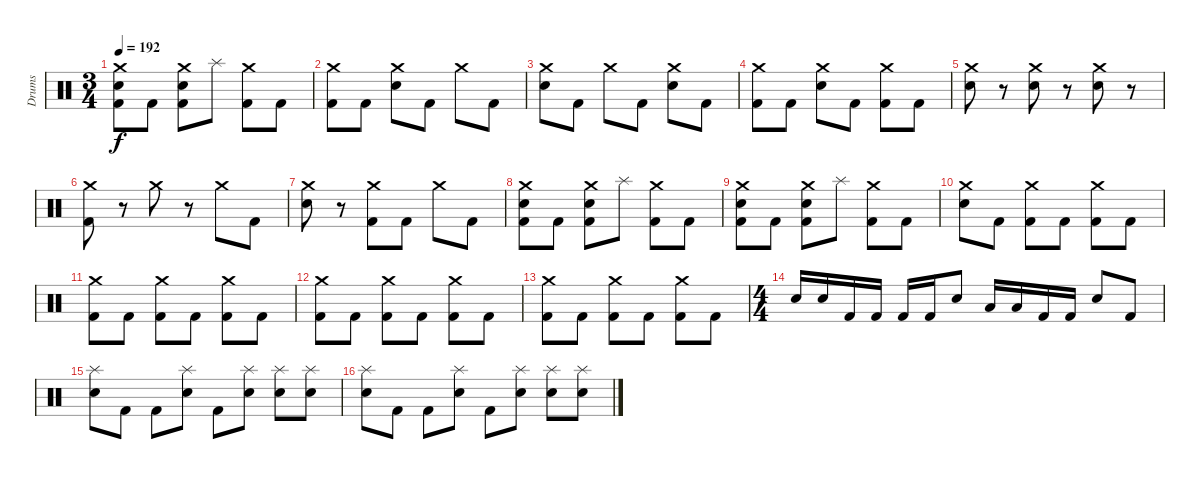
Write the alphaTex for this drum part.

\track ("Drums" "Drums") {instrument percussion}
\staff {score}
\articulation defaults
\ts (3 4)
\tempo 192
\clef neutral
\ks c
("Crash medium (hit)" "Electric Snare (hit)" "Kick (hit) 2").8{dy f} "Kick (hit) 2".8 ("Crash medium (hit)" "Electric Snare (hit)" "Kick (hit) 2").8 "Splash (hit)".8 ("Crash medium (hit)" "Kick (hit) 2").8 "Kick (hit) 2".8 |
("Crash medium (hit)" "Kick (hit) 2").8 "Kick (hit) 2".8 ("Crash medium (hit)" "Electric Snare (hit)").8 "Kick (hit) 2".8 "Crash medium (hit)".8 "Kick (hit) 2".8 |
("Crash medium (hit)" "Electric Snare (hit)").8 "Kick (hit) 2".8 "Crash medium (hit)".8 "Kick (hit) 2".8 ("Crash medium (hit)" "Electric Snare (hit)").8 "Kick (hit) 2".8 |
("Crash medium (hit)" "Kick (hit) 2").8 "Kick (hit) 2".8 ("Crash medium (hit)" "Electric Snare (hit)").8 "Kick (hit) 2".8 ("Crash medium (hit)" "Kick (hit) 2").8 "Kick (hit) 2".8 |
("Crash medium (hit)" "Electric Snare (hit)").8 r.8 ("Crash medium (hit)" "Electric Snare (hit)").8 r.8 ("Crash medium (hit)" "Electric Snare (hit)").8 r.8 |
("Crash medium (hit)" "Kick (hit) 2").8 r.8 "Crash medium (hit)".8 r.8 "Crash medium (hit)".8 "Kick (hit) 2".8 |
("Crash medium (hit)" "Electric Snare (hit)").8 r.8 ("Crash medium (hit)" "Kick (hit) 2").8 "Kick (hit) 2".8 "Crash medium (hit)".8 "Kick (hit) 2".8 |
("Crash medium (hit)" "Electric Snare (hit)" "Kick (hit) 2").8 "Kick (hit) 2".8 ("Crash medium (hit)" "Electric Snare (hit)" "Kick (hit) 2").8 "Splash (hit)".8 ("Crash medium (hit)" "Kick (hit) 2").8 "Kick (hit) 2".8 |
("Crash medium (hit)" "Electric Snare (hit)" "Kick (hit) 2").8 "Kick (hit) 2".8 ("Crash medium (hit)" "Electric Snare (hit)" "Kick (hit) 2").8 "Splash (hit)".8 ("Crash medium (hit)" "Kick (hit) 2").8 "Kick (hit) 2".8 |
("Crash medium (hit)" "Electric Snare (hit)").8 "Kick (hit) 2".8 ("Crash medium (hit)" "Kick (hit) 2").8 "Kick (hit) 2".8 ("Crash medium (hit)" "Kick (hit) 2").8 "Kick (hit) 2".8 |
("Crash medium (hit)" "Kick (hit) 2").8 "Kick (hit) 2".8 ("Crash medium (hit)" "Kick (hit) 2").8 "Kick (hit) 2".8 ("Crash medium (hit)" "Kick (hit) 2").8 "Kick (hit) 2".8 |
("Crash medium (hit)" "Kick (hit) 2").8 "Kick (hit) 2".8 ("Crash medium (hit)" "Kick (hit) 2").8 "Kick (hit) 2".8 ("Crash medium (hit)" "Kick (hit) 2").8 "Kick (hit) 2".8 |
("Crash medium (hit)" "Kick (hit) 2").8 "Kick (hit) 2".8 ("Crash medium (hit)" "Kick (hit) 2").8 "Kick (hit) 2".8 ("Crash medium (hit)" "Kick (hit) 2").8 "Kick (hit) 2".8 |
\ts (4 4)
"Electric Snare (hit)".16 "Electric Snare (hit)".16 "Kick (hit) 2".16 "Kick (hit) 2".16 "Kick (hit) 2".16 "Kick (hit) 2".16 "Electric Snare (hit)".8 "Low Tom (hit)".16 "Low Tom (hit)".16 "Kick (hit) 2".16 "Kick (hit) 2".16 "Electric Snare (hit)".8 "Kick (hit) 2".8 |
("Splash (hit)" "Electric Snare (hit)").8 "Kick (hit) 2".8 "Kick (hit) 2".8 ("Splash (hit)" "Electric Snare (hit)").8 "Kick (hit) 2".8 ("Splash (hit)" "Electric Snare (hit)").8 ("Splash (hit)" "Electric Snare (hit)").8 ("Splash (hit)" "Electric Snare (hit)").8 |
("Splash (hit)" "Electric Snare (hit)").8 "Kick (hit) 2".8 "Kick (hit) 2".8 ("Splash (hit)" "Electric Snare (hit)").8 "Kick (hit) 2".8 ("Splash (hit)" "Electric Snare (hit)").8 ("Splash (hit)" "Electric Snare (hit)").8 ("Splash (hit)" "Electric Snare (hit)").8
